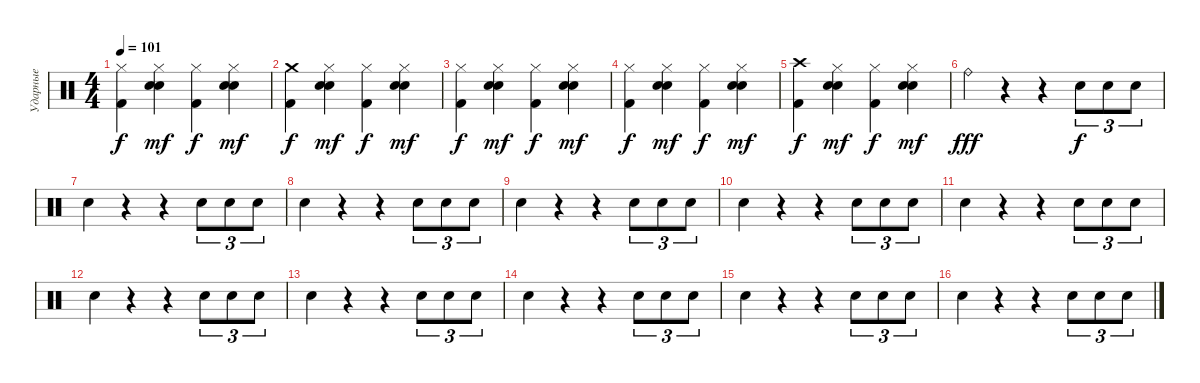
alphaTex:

\track ("Ударные" "Ударные") {instrument percussion}
\staff {score}
\articulation defaults
\ts (4 4)
\tempo 101
\clef neutral
\ks c
("Kick (hit) 2" "Hi-Hat (closed)").4{dy f} ("Electric Snare (hit)" "Hand Clap (hit)" "Hi-Hat (closed)").4{dy mf} ("Kick (hit) 2" "Hi-Hat (closed)").4{dy f} ("Electric Snare (hit)" "Hand Clap (hit)" "Hi-Hat (closed)").4{dy mf} |
("Kick (hit) 2" "Crash medium (hit)").4{dy f} ("Electric Snare (hit)" "Hand Clap (hit)" "Hi-Hat (closed)").4{dy mf} ("Kick (hit) 2" "Hi-Hat (closed)").4{dy f} ("Electric Snare (hit)" "Hand Clap (hit)" "Hi-Hat (closed)").4{dy mf} |
("Kick (hit) 2" "Hi-Hat (closed)").4{dy f} ("Electric Snare (hit)" "Hand Clap (hit)" "Hi-Hat (closed)").4{dy mf} ("Kick (hit) 2" "Hi-Hat (closed)").4{dy f} ("Electric Snare (hit)" "Hand Clap (hit)" "Hi-Hat (closed)").4{dy mf} |
("Kick (hit) 2" "Hi-Hat (closed)").4{dy f} ("Electric Snare (hit)" "Hand Clap (hit)" "Hi-Hat (closed)").4{dy mf} ("Kick (hit) 2" "Hi-Hat (closed)").4{dy f} ("Electric Snare (hit)" "Hand Clap (hit)" "Hi-Hat (closed)").4{dy mf} |
("Kick (hit) 2" "Crash high (hit)").4{dy f} ("Electric Snare (hit)" "Hand Clap (hit)" "Hi-Hat (closed)").4{dy mf} ("Kick (hit) 2" "Hi-Hat (closed)").4{dy f} ("Electric Snare (hit)" "Hand Clap (hit)" "Hi-Hat (closed)").4{dy mf} |
"Ride (bell)".4{dy fff} r.4 r.4 "Snare (hit) 2".8{tu (3 2) dy f} "Snare (hit) 2".8{tu (3 2)} "Snare (hit) 2".8{tu (3 2)} |
"Snare (hit) 2".4 r.4 r.4 "Snare (hit) 2".8{tu (3 2)} "Snare (hit) 2".8{tu (3 2)} "Snare (hit) 2".8{tu (3 2)} |
"Snare (hit) 2".4 r.4 r.4 "Snare (hit) 2".8{tu (3 2)} "Snare (hit) 2".8{tu (3 2)} "Snare (hit) 2".8{tu (3 2)} |
"Snare (hit) 2".4 r.4 r.4 "Snare (hit) 2".8{tu (3 2)} "Snare (hit) 2".8{tu (3 2)} "Snare (hit) 2".8{tu (3 2)} |
"Snare (hit) 2".4 r.4 r.4 "Snare (hit) 2".8{tu (3 2)} "Snare (hit) 2".8{tu (3 2)} "Snare (hit) 2".8{tu (3 2)} |
"Snare (hit) 2".4 r.4 r.4 "Snare (hit) 2".8{tu (3 2)} "Snare (hit) 2".8{tu (3 2)} "Snare (hit) 2".8{tu (3 2)} |
"Snare (hit) 2".4 r.4 r.4 "Snare (hit) 2".8{tu (3 2)} "Snare (hit) 2".8{tu (3 2)} "Snare (hit) 2".8{tu (3 2)} |
"Snare (hit) 2".4 r.4 r.4 "Snare (hit) 2".8{tu (3 2)} "Snare (hit) 2".8{tu (3 2)} "Snare (hit) 2".8{tu (3 2)} |
"Snare (hit) 2".4 r.4 r.4 "Snare (hit) 2".8{tu (3 2)} "Snare (hit) 2".8{tu (3 2)} "Snare (hit) 2".8{tu (3 2)} |
"Snare (hit) 2".4 r.4 r.4 "Snare (hit) 2".8{tu (3 2)} "Snare (hit) 2".8{tu (3 2)} "Snare (hit) 2".8{tu (3 2)} |
"Snare (hit) 2".4 r.4 r.4 "Snare (hit) 2".8{tu (3 2)} "Snare (hit) 2".8{tu (3 2)} "Snare (hit) 2".8{tu (3 2)}
